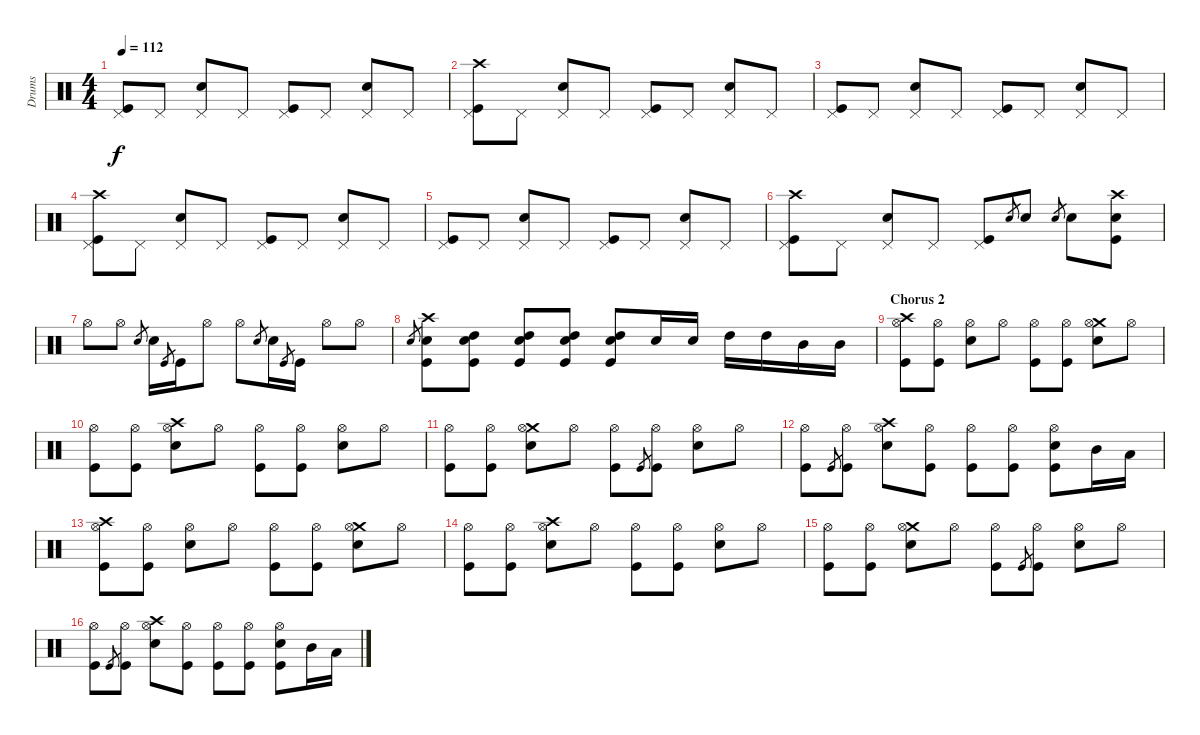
\track ("Drums" "Drums") {instrument percussion}
\staff {score}
\articulation defaults
\ts (4 4)
\tempo 112
\clef neutral
\ks c
("Pedal Hi-Hat (hit)" "Kick (hit)").8{dy f} "Pedal Hi-Hat (hit)".8 ("Pedal Hi-Hat (hit)" "Snare (hit) 2").8 "Pedal Hi-Hat (hit)".8 ("Pedal Hi-Hat (hit)" "Kick (hit)").8 "Pedal Hi-Hat (hit)".8 ("Pedal Hi-Hat (hit)" "Snare (hit) 2").8 "Pedal Hi-Hat (hit)".8 |
("Crash high (hit)" "Pedal Hi-Hat (hit)" "Kick (hit)").8 "Pedal Hi-Hat (hit)".8 ("Pedal Hi-Hat (hit)" "Snare (hit) 2").8 "Pedal Hi-Hat (hit)".8 ("Pedal Hi-Hat (hit)" "Kick (hit)").8 "Pedal Hi-Hat (hit)".8 ("Pedal Hi-Hat (hit)" "Snare (hit) 2").8 "Pedal Hi-Hat (hit)".8 |
("Pedal Hi-Hat (hit)" "Kick (hit)").8 "Pedal Hi-Hat (hit)".8 ("Pedal Hi-Hat (hit)" "Snare (hit) 2").8 "Pedal Hi-Hat (hit)".8 ("Pedal Hi-Hat (hit)" "Kick (hit)").8 "Pedal Hi-Hat (hit)".8 ("Pedal Hi-Hat (hit)" "Snare (hit) 2").8 "Pedal Hi-Hat (hit)".8 |
("Crash high (hit)" "Pedal Hi-Hat (hit)" "Kick (hit)").8 "Pedal Hi-Hat (hit)".8 ("Pedal Hi-Hat (hit)" "Snare (hit) 2").8 "Pedal Hi-Hat (hit)".8 ("Pedal Hi-Hat (hit)" "Kick (hit)").8 "Pedal Hi-Hat (hit)".8 ("Pedal Hi-Hat (hit)" "Snare (hit) 2").8 "Pedal Hi-Hat (hit)".8 |
("Pedal Hi-Hat (hit)" "Kick (hit)").8 "Pedal Hi-Hat (hit)".8 ("Pedal Hi-Hat (hit)" "Snare (hit) 2").8 "Pedal Hi-Hat (hit)".8 ("Pedal Hi-Hat (hit)" "Kick (hit)").8 "Pedal Hi-Hat (hit)".8 ("Pedal Hi-Hat (hit)" "Snare (hit) 2").8 "Pedal Hi-Hat (hit)".8 |
("Crash high (hit)" "Pedal Hi-Hat (hit)" "Kick (hit)").8 "Pedal Hi-Hat (hit)".8 ("Pedal Hi-Hat (hit)" "Snare (hit) 2").8 "Pedal Hi-Hat (hit)".8 ("Pedal Hi-Hat (hit)" "Kick (hit)").8 "Snare (hit) 2".8{gr} "Snare (hit) 2".8 "Snare (hit) 2".8{gr} "Snare (hit) 2".8 ("Crash high (hit)" "Snare (hit) 2" "Kick (hit)").8 |
"Hi-Hat (open)".8 "Hi-Hat (open)".8 "Snare (hit) 2".8{gr} "Snare (hit) 2".16 "Kick (hit)".8{gr} "Kick (hit)".16 "Hi-Hat (open)".8 "Hi-Hat (open)".8 "Snare (hit) 2".8{gr} "Snare (hit) 2".16 "Kick (hit)".8{gr} "Kick (hit)".16 "Hi-Hat (open)".8 "Hi-Hat (open)".8 |
"Snare (hit) 2"{h}.8{gr} ("Crash high (hit)" "Snare (hit) 2" "Kick (hit)").8 ("Snare (hit) 2" "High Tom (hit)" "Kick (hit)").8 ("Snare (hit) 2" "High Tom (hit)" "Kick (hit)").8 ("Snare (hit) 2" "High Tom (hit)" "Kick (hit)").8 ("Snare (hit) 2" "High Tom (hit)" "Kick (hit)").8 "Snare (hit) 2".16 "Snare (hit) 2".16 "High Tom (hit)".16 "High Tom (hit)".16 "Mid Tom (hit)".16 "Mid Tom (hit)".16 |
\section ("" "Chorus 2")
("Crash high (hit)" "Hi-Hat (open)" "Kick (hit)").8 ("Hi-Hat (open)" "Kick (hit)").8 ("Hi-Hat (open)" "Snare (hit) 2").8 "Hi-Hat (open)".8 ("Hi-Hat (open)" "Kick (hit)").8 ("Hi-Hat (open)" "Kick (hit)").8 ("Crash medium (hit)" "Hi-Hat (open)" "Snare (hit) 2").8 "Hi-Hat (open)".8 |
("Hi-Hat (open)" "Kick (hit)").8 ("Hi-Hat (open)" "Kick (hit)").8 ("Crash high (hit)" "Hi-Hat (open)" "Snare (hit) 2").8 "Hi-Hat (open)".8 ("Hi-Hat (open)" "Kick (hit)").8 ("Hi-Hat (open)" "Kick (hit)").8 ("Hi-Hat (open)" "Snare (hit) 2").8 "Hi-Hat (open)".8 |
("Hi-Hat (open)" "Kick (hit)").8 ("Hi-Hat (open)" "Kick (hit)").8 ("Crash medium (hit)" "Hi-Hat (open)" "Snare (hit) 2").8 "Hi-Hat (open)".8 ("Hi-Hat (open)" "Kick (hit)").8 "Kick (hit)".8{gr} ("Hi-Hat (open)" "Kick (hit)").8 ("Hi-Hat (open)" "Snare (hit) 2").8 "Hi-Hat (open)".8 |
("Hi-Hat (open)" "Kick (hit)").8 "Kick (hit)".8{gr} ("Hi-Hat (open)" "Kick (hit)").8 ("Crash high (hit)" "Hi-Hat (open)" "Snare (hit) 2").8 ("Hi-Hat (open)" "Kick (hit)").8 ("Hi-Hat (open)" "Kick (hit)").8 ("Hi-Hat (open)" "Kick (hit)").8 ("Hi-Hat (open)" "Snare (hit) 2" "Kick (hit)").8 "Mid Tom (hit)".16 "Low Tom (hit)".16 |
("Crash high (hit)" "Hi-Hat (open)" "Kick (hit)").8 ("Hi-Hat (open)" "Kick (hit)").8 ("Hi-Hat (open)" "Snare (hit) 2").8 "Hi-Hat (open)".8 ("Hi-Hat (open)" "Kick (hit)").8 ("Hi-Hat (open)" "Kick (hit)").8 ("Crash medium (hit)" "Hi-Hat (open)" "Snare (hit) 2").8 "Hi-Hat (open)".8 |
("Hi-Hat (open)" "Kick (hit)").8 ("Hi-Hat (open)" "Kick (hit)").8 ("Crash high (hit)" "Hi-Hat (open)" "Snare (hit) 2").8 "Hi-Hat (open)".8 ("Hi-Hat (open)" "Kick (hit)").8 ("Hi-Hat (open)" "Kick (hit)").8 ("Hi-Hat (open)" "Snare (hit) 2").8 "Hi-Hat (open)".8 |
("Hi-Hat (open)" "Kick (hit)").8 ("Hi-Hat (open)" "Kick (hit)").8 ("Crash medium (hit)" "Hi-Hat (open)" "Snare (hit) 2").8 "Hi-Hat (open)".8 ("Hi-Hat (open)" "Kick (hit)").8 "Kick (hit)".8{gr} ("Hi-Hat (open)" "Kick (hit)").8 ("Hi-Hat (open)" "Snare (hit) 2").8 "Hi-Hat (open)".8 |
("Hi-Hat (open)" "Kick (hit)").8 "Kick (hit)".8{gr} ("Hi-Hat (open)" "Kick (hit)").8 ("Crash high (hit)" "Hi-Hat (open)" "Snare (hit) 2").8 ("Hi-Hat (open)" "Kick (hit)").8 ("Hi-Hat (open)" "Kick (hit)").8 ("Hi-Hat (open)" "Kick (hit)").8 ("Hi-Hat (open)" "Snare (hit) 2" "Kick (hit)").8 "Mid Tom (hit)".16 "Low Tom (hit)".16
